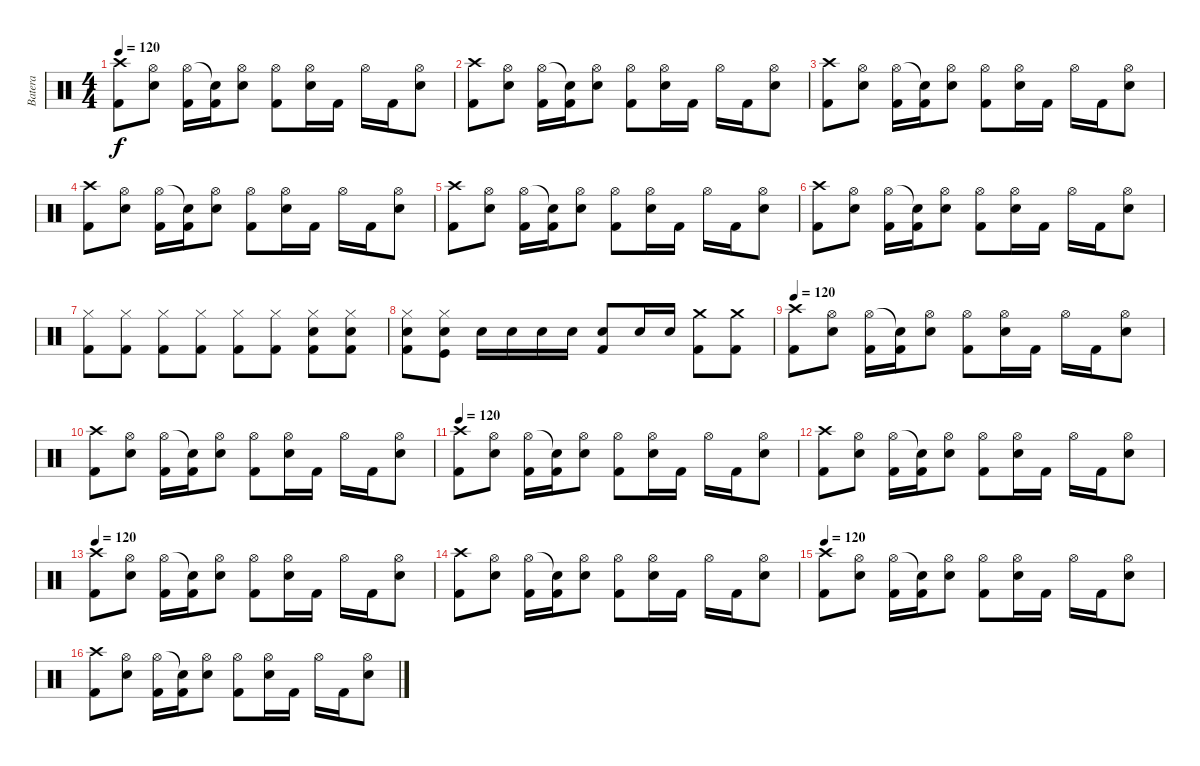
\track ("Batera" "Batera") {instrument percussion}
\staff {score}
\articulation defaults
\ts (4 4)
\tempo 120
\clef neutral
\ks c
("Crash high (hit)" "Kick (hit) 2").8{dy f} ("Hi-Hat (open)" "Electric Snare (hit)").8 ("Hi-Hat (open)" "Kick (hit) 2").16 ("Snare (hit)"{t} "Kick (hit) 2").16 ("Hi-Hat (open)" "Electric Snare (hit)").8 ("Hi-Hat (open)" "Kick (hit) 2").8 ("Hi-Hat (open)" "Electric Snare (hit)").16 "Kick (hit) 2".16 "Hi-Hat (open)".16 "Kick (hit) 2".16 ("Hi-Hat (open)" "Electric Snare (hit)").8 |
("Crash high (hit)" "Kick (hit) 2").8 ("Hi-Hat (open)" "Electric Snare (hit)").8 ("Hi-Hat (open)" "Kick (hit) 2").16 ("Snare (hit)"{t} "Kick (hit) 2").16 ("Hi-Hat (open)" "Electric Snare (hit)").8 ("Hi-Hat (open)" "Kick (hit) 2").8 ("Hi-Hat (open)" "Electric Snare (hit)").16 "Kick (hit) 2".16 "Hi-Hat (open)".16 "Kick (hit) 2".16 ("Hi-Hat (open)" "Electric Snare (hit)").8 |
("Crash high (hit)" "Kick (hit) 2").8 ("Hi-Hat (open)" "Electric Snare (hit)").8 ("Hi-Hat (open)" "Kick (hit) 2").16 ("Snare (hit)"{t} "Kick (hit) 2").16 ("Hi-Hat (open)" "Electric Snare (hit)").8 ("Hi-Hat (open)" "Kick (hit) 2").8 ("Hi-Hat (open)" "Electric Snare (hit)").16 "Kick (hit) 2".16 "Hi-Hat (open)".16 "Kick (hit) 2".16 ("Hi-Hat (open)" "Electric Snare (hit)").8 |
("Crash high (hit)" "Kick (hit) 2").8 ("Hi-Hat (open)" "Electric Snare (hit)").8 ("Hi-Hat (open)" "Kick (hit) 2").16 ("Snare (hit)"{t} "Kick (hit) 2").16 ("Hi-Hat (open)" "Electric Snare (hit)").8 ("Hi-Hat (open)" "Kick (hit) 2").8 ("Hi-Hat (open)" "Electric Snare (hit)").16 "Kick (hit) 2".16 "Hi-Hat (open)".16 "Kick (hit) 2".16 ("Hi-Hat (open)" "Electric Snare (hit)").8 |
("Crash high (hit)" "Kick (hit) 2").8 ("Hi-Hat (open)" "Electric Snare (hit)").8 ("Hi-Hat (open)" "Kick (hit) 2").16 ("Snare (hit)"{t} "Kick (hit) 2").16 ("Hi-Hat (open)" "Electric Snare (hit)").8 ("Hi-Hat (open)" "Kick (hit) 2").8 ("Hi-Hat (open)" "Electric Snare (hit)").16 "Kick (hit) 2".16 "Hi-Hat (open)".16 "Kick (hit) 2".16 ("Hi-Hat (open)" "Electric Snare (hit)").8 |
("Crash high (hit)" "Kick (hit) 2").8 ("Hi-Hat (open)" "Electric Snare (hit)").8 ("Hi-Hat (open)" "Kick (hit) 2").16 ("Snare (hit)"{t} "Kick (hit) 2").16 ("Hi-Hat (open)" "Electric Snare (hit)").8 ("Hi-Hat (open)" "Kick (hit) 2").8 ("Hi-Hat (open)" "Electric Snare (hit)").16 "Kick (hit) 2".16 "Hi-Hat (open)".16 "Kick (hit) 2".16 ("Hi-Hat (open)" "Electric Snare (hit)").8 |
("Kick (hit) 2" "Hi-Hat (closed)").8 ("Kick (hit) 2" "Hi-Hat (closed)").8 ("Kick (hit) 2" "Hi-Hat (closed)").8 ("Kick (hit) 2" "Hi-Hat (closed)").8 ("Kick (hit) 2" "Hi-Hat (closed)").8 ("Kick (hit) 2" "Hi-Hat (closed)").8 ("Kick (hit) 2" "Snare (hit) 2" "Hi-Hat (closed)").8 ("Kick (hit) 2" "Snare (hit) 2" "Hi-Hat (closed)").8 |
("Kick (hit) 2" "Snare (hit) 2" "Hi-Hat (closed)").8 ("Kick (hit)" "Snare (hit) 2" "Hi-Hat (closed)").8 "Snare (hit) 2".16 "Snare (hit) 2".16 "Snare (hit) 2".16 "Snare (hit) 2".16 ("Kick (hit) 2" "Snare (hit) 2").8 "Snare (hit) 2".16 "Snare (hit) 2".16 ("Kick (hit) 2" "Crash medium (hit)").8 ("Kick (hit) 2" "Crash medium (hit)").8 |
\tempo 120
("Crash high (hit)" "Kick (hit) 2").8 ("Hi-Hat (open)" "Electric Snare (hit)").8 ("Hi-Hat (open)" "Kick (hit) 2").16 ("Snare (hit)"{t} "Kick (hit) 2").16 ("Hi-Hat (open)" "Electric Snare (hit)").8 ("Hi-Hat (open)" "Kick (hit) 2").8 ("Hi-Hat (open)" "Electric Snare (hit)").16 "Kick (hit) 2".16 "Hi-Hat (open)".16 "Kick (hit) 2".16 ("Hi-Hat (open)" "Electric Snare (hit)").8 |
("Crash high (hit)" "Kick (hit) 2").8 ("Hi-Hat (open)" "Electric Snare (hit)").8 ("Hi-Hat (open)" "Kick (hit) 2").16 ("Snare (hit)"{t} "Kick (hit) 2").16 ("Hi-Hat (open)" "Electric Snare (hit)").8 ("Hi-Hat (open)" "Kick (hit) 2").8 ("Hi-Hat (open)" "Electric Snare (hit)").16 "Kick (hit) 2".16 "Hi-Hat (open)".16 "Kick (hit) 2".16 ("Hi-Hat (open)" "Electric Snare (hit)").8 |
\tempo 120
("Crash high (hit)" "Kick (hit) 2").8 ("Hi-Hat (open)" "Electric Snare (hit)").8 ("Hi-Hat (open)" "Kick (hit) 2").16 ("Snare (hit)"{t} "Kick (hit) 2").16 ("Hi-Hat (open)" "Electric Snare (hit)").8 ("Hi-Hat (open)" "Kick (hit) 2").8 ("Hi-Hat (open)" "Electric Snare (hit)").16 "Kick (hit) 2".16 "Hi-Hat (open)".16 "Kick (hit) 2".16 ("Hi-Hat (open)" "Electric Snare (hit)").8 |
("Crash high (hit)" "Kick (hit) 2").8 ("Hi-Hat (open)" "Electric Snare (hit)").8 ("Hi-Hat (open)" "Kick (hit) 2").16 ("Snare (hit)"{t} "Kick (hit) 2").16 ("Hi-Hat (open)" "Electric Snare (hit)").8 ("Hi-Hat (open)" "Kick (hit) 2").8 ("Hi-Hat (open)" "Electric Snare (hit)").16 "Kick (hit) 2".16 "Hi-Hat (open)".16 "Kick (hit) 2".16 ("Hi-Hat (open)" "Electric Snare (hit)").8 |
\tempo 120
("Crash high (hit)" "Kick (hit) 2").8 ("Hi-Hat (open)" "Electric Snare (hit)").8 ("Hi-Hat (open)" "Kick (hit) 2").16 ("Snare (hit)"{t} "Kick (hit) 2").16 ("Hi-Hat (open)" "Electric Snare (hit)").8 ("Hi-Hat (open)" "Kick (hit) 2").8 ("Hi-Hat (open)" "Electric Snare (hit)").16 "Kick (hit) 2".16 "Hi-Hat (open)".16 "Kick (hit) 2".16 ("Hi-Hat (open)" "Electric Snare (hit)").8 |
("Crash high (hit)" "Kick (hit) 2").8 ("Hi-Hat (open)" "Electric Snare (hit)").8 ("Hi-Hat (open)" "Kick (hit) 2").16 ("Snare (hit)"{t} "Kick (hit) 2").16 ("Hi-Hat (open)" "Electric Snare (hit)").8 ("Hi-Hat (open)" "Kick (hit) 2").8 ("Hi-Hat (open)" "Electric Snare (hit)").16 "Kick (hit) 2".16 "Hi-Hat (open)".16 "Kick (hit) 2".16 ("Hi-Hat (open)" "Electric Snare (hit)").8 |
\tempo 120
("Crash high (hit)" "Kick (hit) 2").8 ("Hi-Hat (open)" "Electric Snare (hit)").8 ("Hi-Hat (open)" "Kick (hit) 2").16 ("Snare (hit)"{t} "Kick (hit) 2").16 ("Hi-Hat (open)" "Electric Snare (hit)").8 ("Hi-Hat (open)" "Kick (hit) 2").8 ("Hi-Hat (open)" "Electric Snare (hit)").16 "Kick (hit) 2".16 "Hi-Hat (open)".16 "Kick (hit) 2".16 ("Hi-Hat (open)" "Electric Snare (hit)").8 |
("Crash high (hit)" "Kick (hit) 2").8 ("Hi-Hat (open)" "Electric Snare (hit)").8 ("Hi-Hat (open)" "Kick (hit) 2").16 ("Snare (hit)"{t} "Kick (hit) 2").16 ("Hi-Hat (open)" "Electric Snare (hit)").8 ("Hi-Hat (open)" "Kick (hit) 2").8 ("Hi-Hat (open)" "Electric Snare (hit)").16 "Kick (hit) 2".16 "Hi-Hat (open)".16 "Kick (hit) 2".16 ("Hi-Hat (open)" "Electric Snare (hit)").8
